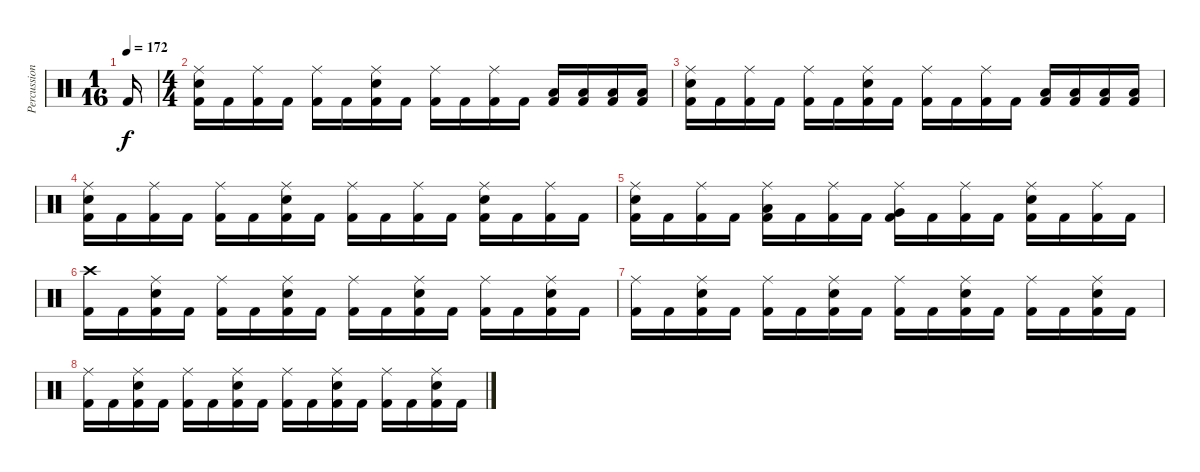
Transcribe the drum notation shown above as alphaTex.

\track ("Percussion" "Percussion") {instrument percussion}
\staff {score}
\articulation defaults
\ts (1 16)
\tempo 172
\clef neutral
\ks c "Kick (hit) 2".16{dy f}
|
\ts (4 4)
("Ride (middle)" "Snare (hit) 2" "Kick (hit) 2").16 "Kick (hit) 2".16 ("Ride (middle)" "Kick (hit) 2").16 "Kick (hit) 2".16 ("Ride (middle)" "Kick (hit) 2").16 "Kick (hit) 2".16 ("Ride (middle)" "Snare (hit) 2" "Kick (hit) 2").16 "Kick (hit) 2".16 ("Ride (middle)" "Kick (hit) 2").16 "Kick (hit) 2".16 ("Ride (middle)" "Kick (hit) 2").16 "Kick (hit) 2".16 ("Low Tom (hit)" "Kick (hit) 2").16 ("Low Tom (hit)" "Kick (hit) 2").16 ("Low Tom (hit)" "Kick (hit) 2").16 ("Low Tom (hit)" "Kick (hit) 2").16 |
("Ride (middle)" "Snare (hit) 2" "Kick (hit) 2").16 "Kick (hit) 2".16 ("Ride (middle)" "Kick (hit) 2").16 "Kick (hit) 2".16 ("Ride (middle)" "Kick (hit) 2").16 "Kick (hit) 2".16 ("Ride (middle)" "Snare (hit) 2" "Kick (hit) 2").16 "Kick (hit) 2".16 ("Ride (middle)" "Kick (hit) 2").16 "Kick (hit) 2".16 ("Ride (middle)" "Kick (hit) 2").16 "Kick (hit) 2".16 ("Low Tom (hit)" "Kick (hit) 2").16 ("Low Tom (hit)" "Kick (hit) 2").16 ("Low Tom (hit)" "Kick (hit) 2").16 ("Low Tom (hit)" "Kick (hit) 2").16 |
("Ride (middle)" "Snare (hit) 2" "Kick (hit) 2").16 "Kick (hit) 2".16 ("Ride (middle)" "Kick (hit) 2").16 "Kick (hit) 2".16 ("Ride (middle)" "Kick (hit) 2").16 "Kick (hit) 2".16 ("Ride (middle)" "Snare (hit) 2" "Kick (hit) 2").16 "Kick (hit) 2".16 ("Ride (middle)" "Kick (hit) 2").16 "Kick (hit) 2".16 ("Ride (middle)" "Kick (hit) 2").16 "Kick (hit) 2".16 ("Ride (middle)" "Snare (hit) 2" "Kick (hit) 2").16 "Kick (hit) 2".16 ("Ride (middle)" "Kick (hit) 2").16 "Kick (hit) 2".16 |
("Ride (middle)" "Snare (hit) 2" "Kick (hit) 2").16 "Kick (hit) 2".16 ("Ride (middle)" "Kick (hit) 2").16 "Kick (hit) 2".16 ("Ride (middle)" "Low Tom (hit)" "Kick (hit) 2").16 "Kick (hit) 2".16 ("Ride (middle)" "Kick (hit) 2").16 "Kick (hit) 2".16 ("Ride (middle)" "Very Low Tom (hit)" "Kick (hit) 2").16 "Kick (hit) 2".16 ("Ride (middle)" "Kick (hit) 2").16 "Kick (hit) 2".16 ("Ride (middle)" "Snare (hit) 2" "Kick (hit) 2").16 "Kick (hit) 2".16 ("Ride (middle)" "Kick (hit) 2").16 "Kick (hit) 2".16 |
("Crash high (hit)" "Kick (hit) 2").16 "Kick (hit) 2".16 ("Ride (middle)" "Snare (hit) 2" "Kick (hit) 2").16 "Kick (hit) 2".16 ("Ride (middle)" "Kick (hit) 2").16 "Kick (hit) 2".16 ("Ride (middle)" "Snare (hit) 2" "Kick (hit) 2").16 "Kick (hit) 2".16 ("Ride (middle)" "Kick (hit) 2").16 "Kick (hit) 2".16 ("Ride (middle)" "Snare (hit) 2" "Kick (hit) 2").16 "Kick (hit) 2".16 ("Ride (middle)" "Kick (hit) 2").16 "Kick (hit) 2".16 ("Ride (middle)" "Snare (hit) 2" "Kick (hit) 2").16 "Kick (hit) 2".16 |
("Ride (middle)" "Kick (hit) 2").16 "Kick (hit) 2".16 ("Ride (middle)" "Snare (hit) 2" "Kick (hit) 2").16 "Kick (hit) 2".16 ("Ride (middle)" "Kick (hit) 2").16 "Kick (hit) 2".16 ("Ride (middle)" "Snare (hit) 2" "Kick (hit) 2").16 "Kick (hit) 2".16 ("Ride (middle)" "Kick (hit) 2").16 "Kick (hit) 2".16 ("Ride (middle)" "Snare (hit) 2" "Kick (hit) 2").16 "Kick (hit) 2".16 ("Ride (middle)" "Kick (hit) 2").16 "Kick (hit) 2".16 ("Ride (middle)" "Snare (hit) 2" "Kick (hit) 2").16 "Kick (hit) 2".16 |
("Ride (middle)" "Kick (hit) 2").16 "Kick (hit) 2".16 ("Ride (middle)" "Snare (hit) 2" "Kick (hit) 2").16 "Kick (hit) 2".16 ("Ride (middle)" "Kick (hit) 2").16 "Kick (hit) 2".16 ("Ride (middle)" "Snare (hit) 2" "Kick (hit) 2").16 "Kick (hit) 2".16 ("Ride (middle)" "Kick (hit) 2").16 "Kick (hit) 2".16 ("Ride (middle)" "Snare (hit) 2" "Kick (hit) 2").16 "Kick (hit) 2".16 ("Ride (middle)" "Kick (hit) 2").16 "Kick (hit) 2".16 ("Ride (middle)" "Snare (hit) 2" "Kick (hit) 2").16 "Kick (hit) 2".16
